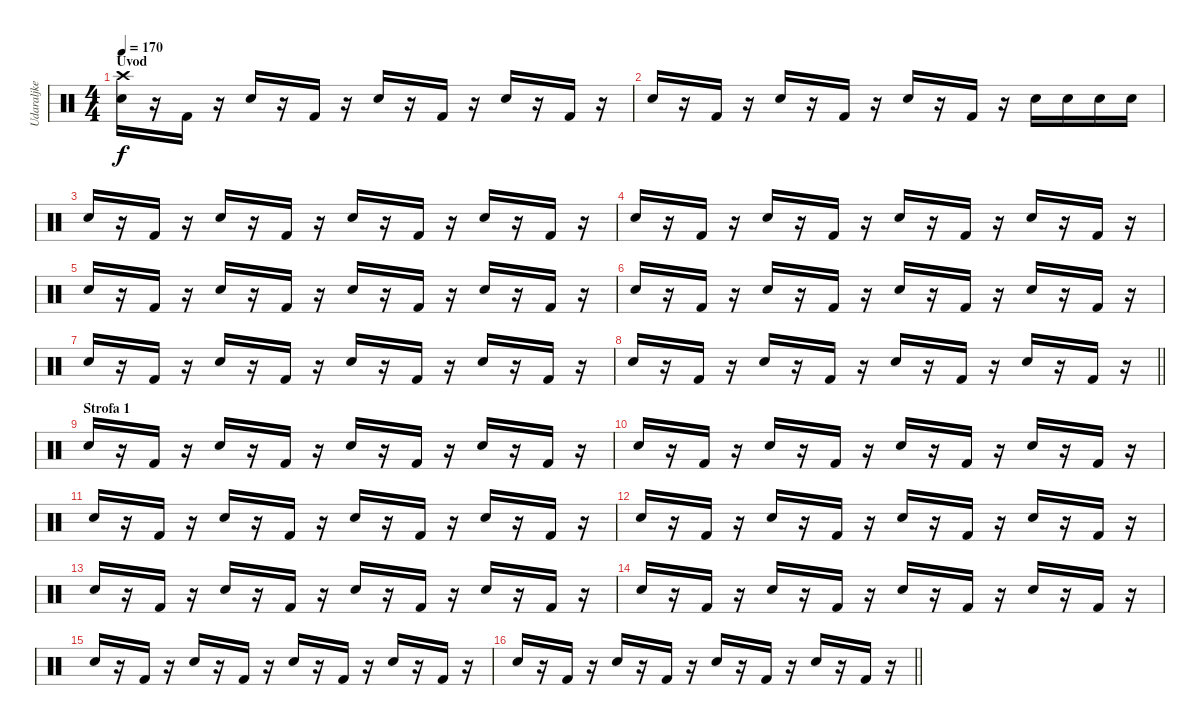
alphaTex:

\track ("Udaraljke" "Udaraljke") {instrument percussion}
\staff {score}
\articulation defaults
\ts (4 4)
\section ("" "Uvod")
\tempo 170
\clef neutral
\ks c
("Crash high (hit)" "Snare (hit) 2").16{dy f} r.16 "Kick (hit) 2".16 r.16 "Snare (hit) 2".16 r.16 "Kick (hit) 2".16 r.16 "Snare (hit) 2".16 r.16 "Kick (hit) 2".16 r.16 "Snare (hit) 2".16 r.16 "Kick (hit) 2".16 r.16 |
"Snare (hit) 2".16 r.16 "Kick (hit) 2".16 r.16 "Snare (hit) 2".16 r.16 "Kick (hit) 2".16 r.16 "Snare (hit) 2".16 r.16 "Kick (hit) 2".16 r.16 "Snare (hit) 2".16 "Snare (hit) 2".16 "Snare (hit) 2".16 "Snare (hit) 2".16 |
"Snare (hit) 2".16 r.16 "Kick (hit) 2".16 r.16 "Snare (hit) 2".16 r.16 "Kick (hit) 2".16 r.16 "Snare (hit) 2".16 r.16 "Kick (hit) 2".16 r.16 "Snare (hit) 2".16 r.16 "Kick (hit) 2".16 r.16 |
"Snare (hit) 2".16 r.16 "Kick (hit) 2".16 r.16 "Snare (hit) 2".16 r.16 "Kick (hit) 2".16 r.16 "Snare (hit) 2".16 r.16 "Kick (hit) 2".16 r.16 "Snare (hit) 2".16 r.16 "Kick (hit) 2".16 r.16 |
"Snare (hit) 2".16 r.16 "Kick (hit) 2".16 r.16 "Snare (hit) 2".16 r.16 "Kick (hit) 2".16 r.16 "Snare (hit) 2".16 r.16 "Kick (hit) 2".16 r.16 "Snare (hit) 2".16 r.16 "Kick (hit) 2".16 r.16 |
"Snare (hit) 2".16 r.16 "Kick (hit) 2".16 r.16 "Snare (hit) 2".16 r.16 "Kick (hit) 2".16 r.16 "Snare (hit) 2".16 r.16 "Kick (hit) 2".16 r.16 "Snare (hit) 2".16 r.16 "Kick (hit) 2".16 r.16 |
"Snare (hit) 2".16 r.16 "Kick (hit) 2".16 r.16 "Snare (hit) 2".16 r.16 "Kick (hit) 2".16 r.16 "Snare (hit) 2".16 r.16 "Kick (hit) 2".16 r.16 "Snare (hit) 2".16 r.16 "Kick (hit) 2".16 r.16 |
\barLineRight lightlight "Snare (hit) 2".16
r.16 "Kick (hit) 2".16 r.16 "Snare (hit) 2".16 r.16 "Kick (hit) 2".16 r.16 "Snare (hit) 2".16 r.16 "Kick (hit) 2".16 r.16 "Snare (hit) 2".16 r.16 "Kick (hit) 2".16 r.16 |
\section ("" "Strofa 1")
"Snare (hit) 2".16 r.16 "Kick (hit) 2".16 r.16 "Snare (hit) 2".16 r.16 "Kick (hit) 2".16 r.16 "Snare (hit) 2".16 r.16 "Kick (hit) 2".16 r.16 "Snare (hit) 2".16 r.16 "Kick (hit) 2".16 r.16 |
"Snare (hit) 2".16 r.16 "Kick (hit) 2".16 r.16 "Snare (hit) 2".16 r.16 "Kick (hit) 2".16 r.16 "Snare (hit) 2".16 r.16 "Kick (hit) 2".16 r.16 "Snare (hit) 2".16 r.16 "Kick (hit) 2".16 r.16 |
"Snare (hit) 2".16 r.16 "Kick (hit) 2".16 r.16 "Snare (hit) 2".16 r.16 "Kick (hit) 2".16 r.16 "Snare (hit) 2".16 r.16 "Kick (hit) 2".16 r.16 "Snare (hit) 2".16 r.16 "Kick (hit) 2".16 r.16 |
"Snare (hit) 2".16 r.16 "Kick (hit) 2".16 r.16 "Snare (hit) 2".16 r.16 "Kick (hit) 2".16 r.16 "Snare (hit) 2".16 r.16 "Kick (hit) 2".16 r.16 "Snare (hit) 2".16 r.16 "Kick (hit) 2".16 r.16 |
"Snare (hit) 2".16 r.16 "Kick (hit) 2".16 r.16 "Snare (hit) 2".16 r.16 "Kick (hit) 2".16 r.16 "Snare (hit) 2".16 r.16 "Kick (hit) 2".16 r.16 "Snare (hit) 2".16 r.16 "Kick (hit) 2".16 r.16 |
"Snare (hit) 2".16 r.16 "Kick (hit) 2".16 r.16 "Snare (hit) 2".16 r.16 "Kick (hit) 2".16 r.16 "Snare (hit) 2".16 r.16 "Kick (hit) 2".16 r.16 "Snare (hit) 2".16 r.16 "Kick (hit) 2".16 r.16 |
"Snare (hit) 2".16 r.16 "Kick (hit) 2".16 r.16 "Snare (hit) 2".16 r.16 "Kick (hit) 2".16 r.16 "Snare (hit) 2".16 r.16 "Kick (hit) 2".16 r.16 "Snare (hit) 2".16 r.16 "Kick (hit) 2".16 r.16 |
\barLineRight lightlight "Snare (hit) 2".16
r.16 "Kick (hit) 2".16 r.16 "Snare (hit) 2".16 r.16 "Kick (hit) 2".16 r.16 "Snare (hit) 2".16 r.16 "Kick (hit) 2".16 r.16 "Snare (hit) 2".16 r.16 "Kick (hit) 2".16 r.16
